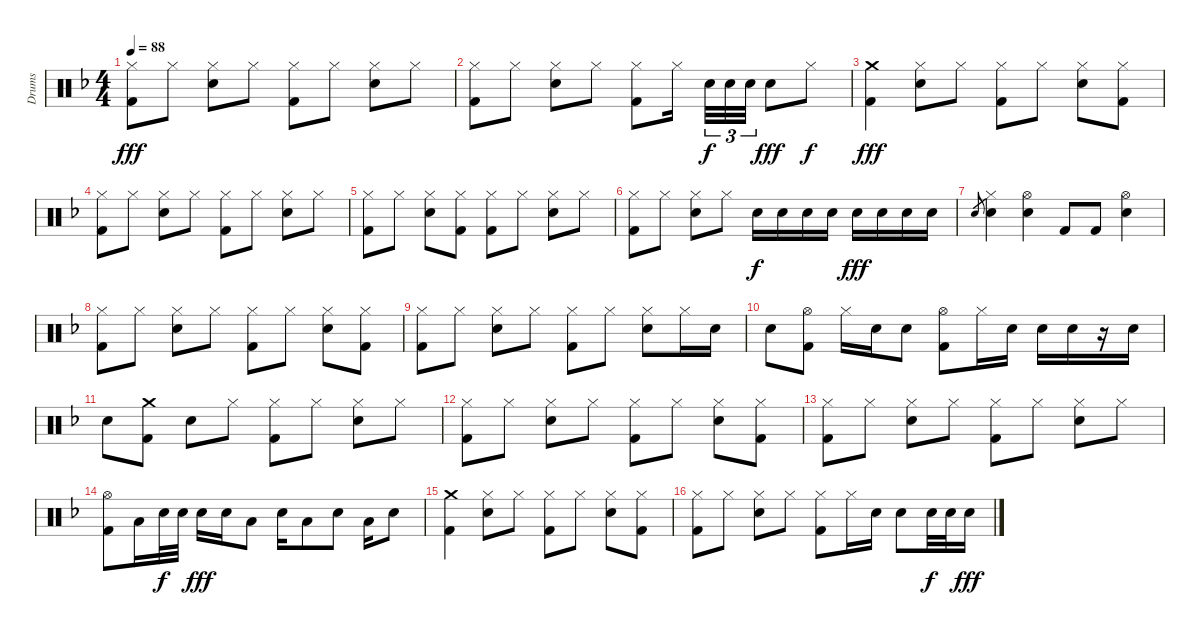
\track ("Drums" "Drums") {instrument percussion}
\staff {score}
\articulation defaults
\ts (4 4)
\tempo 88
\clef neutral
\ks dminor
("Hi-Hat (closed)" "Kick (hit) 2").8{dy fff} "Hi-Hat (closed)".8 ("Hi-Hat (closed)" "Snare (hit) 2").8 "Hi-Hat (closed)".8 ("Hi-Hat (closed)" "Kick (hit) 2").8 "Hi-Hat (closed)".8 ("Hi-Hat (closed)" "Snare (hit) 2").8 "Hi-Hat (closed)".8 |
("Hi-Hat (closed)" "Kick (hit) 2").8 "Hi-Hat (closed)".8 ("Hi-Hat (closed)" "Snare (hit) 2").8 "Hi-Hat (closed)".8 ("Hi-Hat (closed)" "Kick (hit) 2").8 "Hi-Hat (closed)".16{beam splitsecondary} "Snare (hit) 2".32{tu (3 2) dy f} "Snare (hit) 2".32{tu (3 2)} "Snare (hit) 2".32{tu (3 2)} "Snare (hit) 2".8{dy fff} "Hi-Hat (closed)".8{dy f} |
("Crash medium (hit)" "Kick (hit) 2").4{dy fff} ("Hi-Hat (closed)" "Snare (hit) 2").8 "Hi-Hat (closed)".8 ("Hi-Hat (closed)" "Kick (hit) 2").8 "Hi-Hat (closed)".8 ("Hi-Hat (closed)" "Snare (hit) 2").8 ("Hi-Hat (closed)" "Kick (hit) 2").8 |
("Hi-Hat (closed)" "Kick (hit) 2").8 "Hi-Hat (closed)".8 ("Hi-Hat (closed)" "Snare (hit) 2").8 "Hi-Hat (closed)".8 ("Hi-Hat (closed)" "Kick (hit) 2").8 "Hi-Hat (closed)".8 ("Hi-Hat (closed)" "Snare (hit) 2").8 "Hi-Hat (closed)".8 |
("Hi-Hat (closed)" "Kick (hit) 2").8 "Hi-Hat (closed)".8 ("Hi-Hat (closed)" "Snare (hit) 2").8 ("Hi-Hat (closed)" "Kick (hit) 2").8 ("Hi-Hat (closed)" "Kick (hit) 2").8 "Hi-Hat (closed)".8 ("Hi-Hat (closed)" "Snare (hit) 2").8 "Hi-Hat (closed)".8 |
("Hi-Hat (closed)" "Kick (hit) 2").8 "Hi-Hat (closed)".8 ("Hi-Hat (closed)" "Snare (hit) 2").8 "Hi-Hat (closed)".8 "Snare (hit) 2".16{dy f} "Snare (hit) 2".16 "Snare (hit) 2".16 "Snare (hit) 2".16 "Snare (hit) 2".16{dy fff} "Snare (hit) 2".16 "Snare (hit) 2".16 "Snare (hit) 2".16 |
"Snare (hit) 2".8{gr} ("Hi-Hat (closed)" "Snare (hit) 2").4 ("Hi-Hat (open)" "Snare (hit) 2").4 "Kick (hit) 2".8 "Kick (hit) 2".8 ("Hi-Hat (open)" "Snare (hit) 2").4 |
("Hi-Hat (closed)" "Kick (hit) 2").8 "Hi-Hat (closed)".8 ("Hi-Hat (closed)" "Snare (hit) 2").8 "Hi-Hat (closed)".8 ("Hi-Hat (closed)" "Kick (hit) 2").8 "Hi-Hat (closed)".8 ("Hi-Hat (closed)" "Snare (hit) 2").8 ("Hi-Hat (closed)" "Kick (hit) 2").8 |
("Hi-Hat (closed)" "Kick (hit) 2").8 "Hi-Hat (closed)".8 ("Hi-Hat (closed)" "Snare (hit) 2").8 "Hi-Hat (closed)".8 ("Hi-Hat (closed)" "Kick (hit) 2").8 "Hi-Hat (closed)".8 ("Hi-Hat (closed)" "Snare (hit) 2").8 "Hi-Hat (closed)".16 "Snare (hit) 2".16 |
"Snare (hit) 2".8 ("Hi-Hat (open)" "Kick (hit) 2").8 "Hi-Hat (closed)".16 "Snare (hit) 2".16 "Snare (hit) 2".8 ("Hi-Hat (open)" "Kick (hit) 2").8 "Hi-Hat (closed)".16 "Snare (hit) 2".16 "Snare (hit) 2".16 "Snare (hit) 2".16 r.16 "Snare (hit) 2".16 |
"Snare (hit) 2".8 ("Crash medium (hit)" "Kick (hit) 2").8 "Snare (hit) 2".8 "Hi-Hat (closed)".8 ("Hi-Hat (closed)" "Kick (hit) 2").8 "Hi-Hat (closed)".8 ("Hi-Hat (closed)" "Snare (hit) 2").8 "Hi-Hat (closed)".8 |
("Hi-Hat (closed)" "Kick (hit) 2").8 "Hi-Hat (closed)".8 ("Hi-Hat (closed)" "Snare (hit) 2").8 "Hi-Hat (closed)".8 ("Hi-Hat (closed)" "Kick (hit) 2").8 "Hi-Hat (closed)".8 ("Hi-Hat (closed)" "Snare (hit) 2").8 ("Hi-Hat (closed)" "Kick (hit) 2").8 |
("Hi-Hat (closed)" "Kick (hit) 2").8 "Hi-Hat (closed)".8 ("Hi-Hat (closed)" "Snare (hit) 2").8 "Hi-Hat (closed)".8 ("Hi-Hat (closed)" "Kick (hit) 2").8 "Hi-Hat (closed)".8 ("Hi-Hat (closed)" "Snare (hit) 2").8 "Hi-Hat (closed)".8 |
("Hi-Hat (open)" "Kick (hit) 2").8 "Low Tom (hit)".16 "Snare (hit) 2".32{dy f} "Snare (hit) 2".32 "Snare (hit) 2".16{dy fff} "Snare (hit) 2".16 "Low Tom (hit)".8 "Snare (hit) 2".16 "Low Tom (hit)".8 "Snare (hit) 2".8 "Low Tom (hit)".16 "Snare (hit) 2".8 |
("Crash medium (hit)" "Kick (hit) 2").4 ("Hi-Hat (closed)" "Snare (hit) 2").8 "Hi-Hat (closed)".8 ("Hi-Hat (closed)" "Kick (hit) 2").8 "Hi-Hat (closed)".8 ("Hi-Hat (closed)" "Snare (hit) 2").8 ("Hi-Hat (closed)" "Kick (hit) 2").8 |
("Hi-Hat (closed)" "Kick (hit) 2").8 "Hi-Hat (closed)".8 ("Hi-Hat (closed)" "Snare (hit) 2").8 "Hi-Hat (closed)".8 ("Hi-Hat (closed)" "Kick (hit) 2").8 "Hi-Hat (closed)".16 "Snare (hit) 2".16 "Snare (hit) 2".8 "Snare (hit) 2".32{dy f} "Snare (hit) 2".32 "Snare (hit) 2".16{dy fff}
